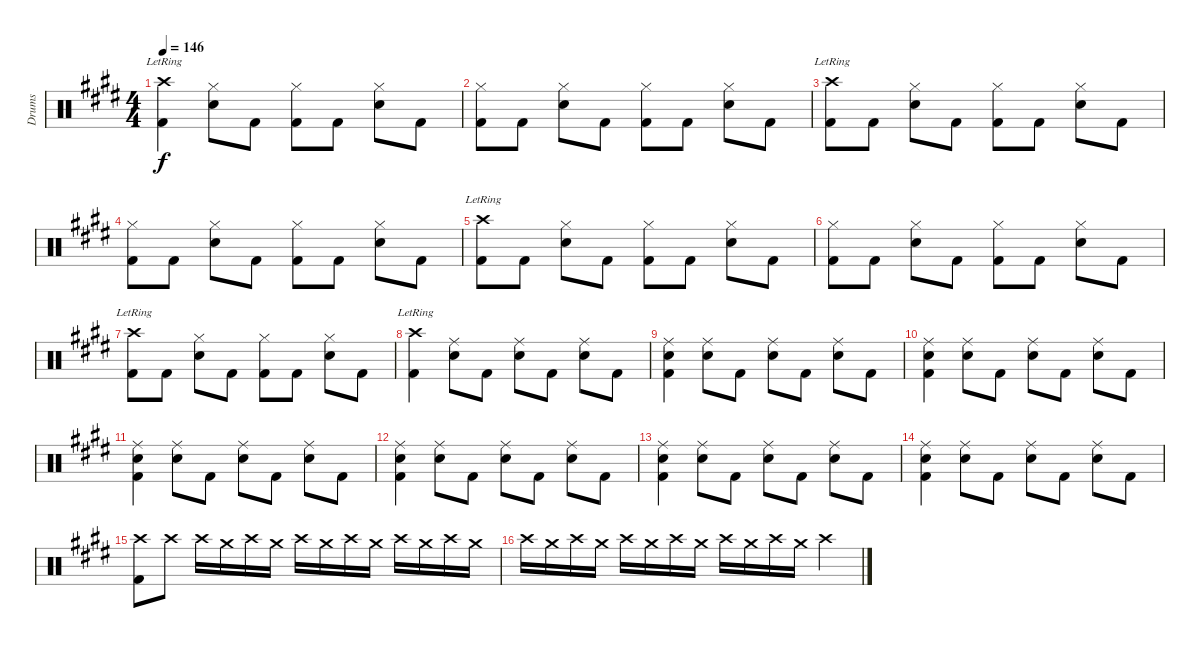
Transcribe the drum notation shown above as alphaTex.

\track ("Drums" "Drums") {instrument percussion}
\staff {score}
\articulation defaults
\ts (4 4)
\tempo 146
\clef neutral
\ks e
("Kick (hit) 2" "Crash high (hit)"{lr}).4{dy f} ("Snare (hit) 2" "Hi-Hat (closed)").8 "Kick (hit) 2".8 ("Kick (hit) 2" "Hi-Hat (closed)").8 "Kick (hit) 2".8 ("Snare (hit) 2" "Hi-Hat (closed)").8 "Kick (hit) 2".8 |
("Kick (hit) 2" "Hi-Hat (closed)").8 "Kick (hit) 2".8 ("Snare (hit) 2" "Hi-Hat (closed)").8 "Kick (hit) 2".8 ("Kick (hit) 2" "Hi-Hat (closed)").8 "Kick (hit) 2".8 ("Snare (hit) 2" "Hi-Hat (closed)").8 "Kick (hit) 2".8 |
("Kick (hit) 2" "Crash high (hit)"{lr}).8 "Kick (hit) 2".8 ("Snare (hit) 2" "Hi-Hat (closed)").8 "Kick (hit) 2".8 ("Kick (hit) 2" "Hi-Hat (closed)").8 "Kick (hit) 2".8 ("Snare (hit) 2" "Hi-Hat (closed)").8 "Kick (hit) 2".8 |
("Kick (hit) 2" "Hi-Hat (closed)").8 "Kick (hit) 2".8 ("Snare (hit) 2" "Hi-Hat (closed)").8 "Kick (hit) 2".8 ("Kick (hit) 2" "Hi-Hat (closed)").8 "Kick (hit) 2".8 ("Snare (hit) 2" "Hi-Hat (closed)").8 "Kick (hit) 2".8 |
("Kick (hit) 2" "Crash high (hit)"{lr}).8 "Kick (hit) 2".8 ("Snare (hit) 2" "Hi-Hat (closed)").8 "Kick (hit) 2".8 ("Kick (hit) 2" "Hi-Hat (closed)").8 "Kick (hit) 2".8 ("Snare (hit) 2" "Hi-Hat (closed)").8 "Kick (hit) 2".8 |
("Kick (hit) 2" "Hi-Hat (closed)").8 "Kick (hit) 2".8 ("Snare (hit) 2" "Hi-Hat (closed)").8 "Kick (hit) 2".8 ("Kick (hit) 2" "Hi-Hat (closed)").8 "Kick (hit) 2".8 ("Snare (hit) 2" "Hi-Hat (closed)").8 "Kick (hit) 2".8 |
("Kick (hit) 2" "Crash high (hit)"{lr}).8 "Kick (hit) 2".8 ("Snare (hit) 2" "Hi-Hat (closed)").8 "Kick (hit) 2".8 ("Kick (hit) 2" "Hi-Hat (closed)").8 "Kick (hit) 2".8 ("Snare (hit) 2" "Hi-Hat (closed)").8 "Kick (hit) 2".8 |
("Kick (hit) 2" "Crash high (hit)"{lr}).4 ("Snare (hit) 2" "Ride (middle)").8 "Kick (hit) 2".8 ("Snare (hit) 2" "Ride (middle)").8 "Kick (hit) 2".8 ("Snare (hit) 2" "Ride (middle)").8 "Kick (hit) 2".8 |
("Kick (hit) 2" "Snare (hit) 2" "Ride (middle)").4 ("Snare (hit) 2" "Ride (middle)").8 "Kick (hit) 2".8 ("Snare (hit) 2" "Ride (middle)").8 "Kick (hit) 2".8 ("Snare (hit) 2" "Ride (middle)").8 "Kick (hit) 2".8 |
("Kick (hit) 2" "Snare (hit) 2" "Ride (middle)").4 ("Snare (hit) 2" "Ride (middle)").8 "Kick (hit) 2".8 ("Snare (hit) 2" "Ride (middle)").8 "Kick (hit) 2".8 ("Snare (hit) 2" "Ride (middle)").8 "Kick (hit) 2".8 |
("Kick (hit) 2" "Snare (hit) 2" "Ride (middle)").4 ("Snare (hit) 2" "Ride (middle)").8 "Kick (hit) 2".8 ("Snare (hit) 2" "Ride (middle)").8 "Kick (hit) 2".8 ("Snare (hit) 2" "Ride (middle)").8 "Kick (hit) 2".8 |
("Kick (hit) 2" "Snare (hit) 2" "Ride (middle)").4 ("Snare (hit) 2" "Ride (middle)").8 "Kick (hit) 2".8 ("Snare (hit) 2" "Ride (middle)").8 "Kick (hit) 2".8 ("Snare (hit) 2" "Ride (middle)").8 "Kick (hit) 2".8 |
("Kick (hit) 2" "Snare (hit) 2" "Ride (middle)").4 ("Snare (hit) 2" "Ride (middle)").8 "Kick (hit) 2".8 ("Snare (hit) 2" "Ride (middle)").8 "Kick (hit) 2".8 ("Snare (hit) 2" "Ride (middle)").8 "Kick (hit) 2".8 |
("Kick (hit) 2" "Snare (hit) 2" "Ride (middle)").4 ("Snare (hit) 2" "Ride (middle)").8 "Kick (hit) 2".8 ("Snare (hit) 2" "Ride (middle)").8 "Kick (hit) 2".8 ("Snare (hit) 2" "Ride (middle)").8 "Kick (hit) 2".8 |
("Kick (hit) 2" "Crash high (hit)").8 "Crash high (hit)".8 "Crash high (hit)".16 "Crash medium (hit)".16 "Crash high (hit)".16 "Crash medium (hit)".16 "Crash high (hit)".16 "Crash medium (hit)".16 "Crash high (hit)".16 "Crash medium (hit)".16 "Crash high (hit)".16 "Crash medium (hit)".16 "Crash high (hit)".16 "Crash medium (hit)".16 |
"Crash high (hit)".16 "Crash medium (hit)".16 "Crash high (hit)".16 "Crash medium (hit)".16 "Crash high (hit)".16 "Crash medium (hit)".16 "Crash high (hit)".16 "Crash medium (hit)".16 "Crash high (hit)".16 "Crash medium (hit)".16 "Crash high (hit)".16 "Crash medium (hit)".16 "Crash high (hit)".4
